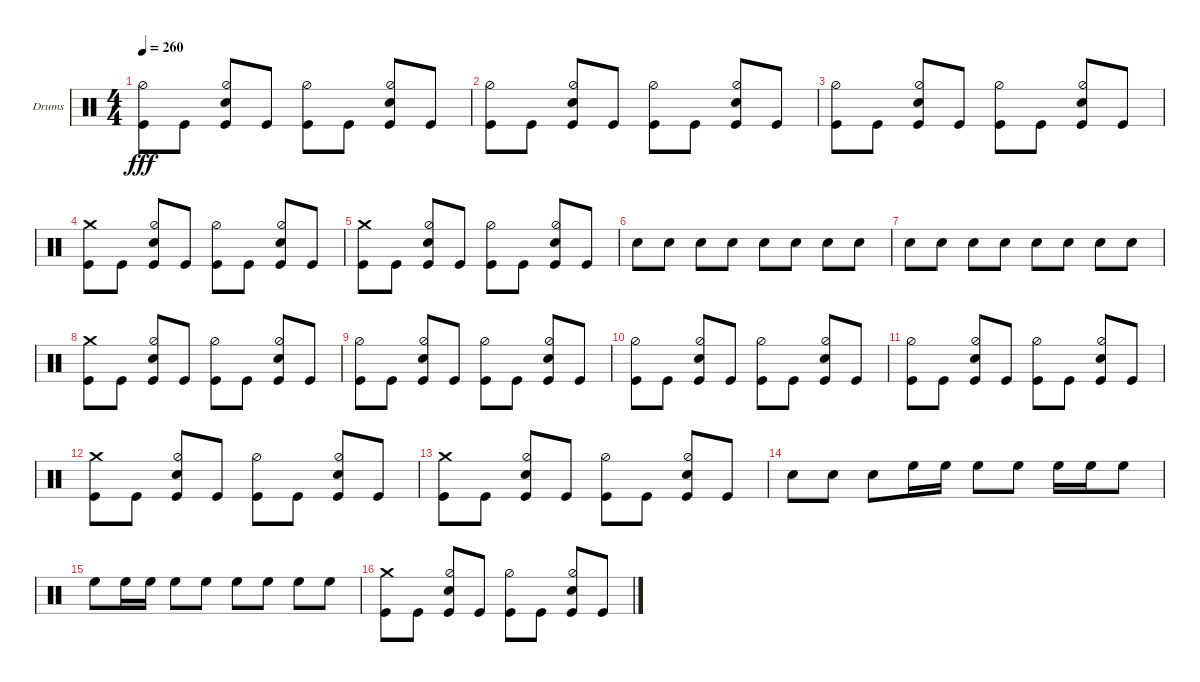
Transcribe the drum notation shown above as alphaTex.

\defaultSystemsLayout 4
\bracketExtendMode groupsimilarinstruments
\firstSystemTrackNameOrientation horizontal
\otherSystemsTrackNameOrientation horizontal
\track ("Stefan Schwarzmann" "Drums") {instrument percussion}
\staff {score}
\articulation defaults
\ts (4 4)
\tempo 260
\clef neutral
\ks c
("Kick (hit)" "Hi-Hat (half)").8{dy fff} "Kick (hit)".8 ("Kick (hit)" "Snare (hit) 2" "Hi-Hat (half)").8 "Kick (hit)".8 ("Kick (hit)" "Hi-Hat (half)").8 "Kick (hit)".8 ("Kick (hit)" "Snare (hit) 2" "Hi-Hat (half)").8 "Kick (hit)".8 |
("Kick (hit)" "Hi-Hat (half)").8 "Kick (hit)".8 ("Kick (hit)" "Snare (hit) 2" "Hi-Hat (half)").8 "Kick (hit)".8 ("Kick (hit)" "Hi-Hat (half)").8 "Kick (hit)".8 ("Kick (hit)" "Snare (hit) 2" "Hi-Hat (half)").8 "Kick (hit)".8 |
("Kick (hit)" "Hi-Hat (half)").8 "Kick (hit)".8 ("Kick (hit)" "Snare (hit) 2" "Hi-Hat (half)").8 "Kick (hit)".8 ("Kick (hit)" "Hi-Hat (half)").8 "Kick (hit)".8 ("Kick (hit)" "Snare (hit) 2" "Hi-Hat (half)").8 "Kick (hit)".8 |
("Kick (hit)" "Crash medium (hit)").8 "Kick (hit)".8 ("Kick (hit)" "Snare (hit) 2" "Hi-Hat (half)").8 "Kick (hit)".8 ("Kick (hit)" "Hi-Hat (half)").8 "Kick (hit)".8 ("Kick (hit)" "Snare (hit) 2" "Hi-Hat (half)").8 "Kick (hit)".8 |
("Kick (hit)" "Crash medium (hit)").8 "Kick (hit)".8 ("Kick (hit)" "Snare (hit) 2" "Hi-Hat (half)").8 "Kick (hit)".8 ("Kick (hit)" "Hi-Hat (half)").8 "Kick (hit)".8 ("Kick (hit)" "Snare (hit) 2" "Hi-Hat (half)").8 "Kick (hit)".8 |
"Snare (hit) 2".8 "Snare (hit) 2".8 "Snare (hit) 2".8 "Snare (hit) 2".8 "Snare (hit) 2".8 "Snare (hit) 2".8 "Snare (hit) 2".8 "Snare (hit) 2".8 |
"Snare (hit) 2".8 "Snare (hit) 2".8 "Snare (hit) 2".8 "Snare (hit) 2".8 "Snare (hit) 2".8 "Snare (hit) 2".8 "Snare (hit) 2".8 "Snare (hit) 2".8 |
("Kick (hit)" "Crash medium (hit)").8 "Kick (hit)".8 ("Kick (hit)" "Snare (hit) 2" "Hi-Hat (half)").8 "Kick (hit)".8 ("Kick (hit)" "Hi-Hat (half)").8 "Kick (hit)".8 ("Kick (hit)" "Snare (hit) 2" "Hi-Hat (half)").8 "Kick (hit)".8 |
("Kick (hit)" "Hi-Hat (half)").8 "Kick (hit)".8 ("Kick (hit)" "Snare (hit) 2" "Hi-Hat (half)").8 "Kick (hit)".8 ("Kick (hit)" "Hi-Hat (half)").8 "Kick (hit)".8 ("Kick (hit)" "Snare (hit) 2" "Hi-Hat (half)").8 "Kick (hit)".8 |
("Kick (hit)" "Hi-Hat (half)").8 "Kick (hit)".8 ("Kick (hit)" "Snare (hit) 2" "Hi-Hat (half)").8 "Kick (hit)".8 ("Kick (hit)" "Hi-Hat (half)").8 "Kick (hit)".8 ("Kick (hit)" "Snare (hit) 2" "Hi-Hat (half)").8 "Kick (hit)".8 |
("Kick (hit)" "Hi-Hat (half)").8 "Kick (hit)".8 ("Kick (hit)" "Snare (hit) 2" "Hi-Hat (half)").8 "Kick (hit)".8 ("Kick (hit)" "Hi-Hat (half)").8 "Kick (hit)".8 ("Kick (hit)" "Snare (hit) 2" "Hi-Hat (half)").8 "Kick (hit)".8 |
("Kick (hit)" "Crash medium (hit)").8 "Kick (hit)".8 ("Kick (hit)" "Snare (hit) 2" "Hi-Hat (half)").8 "Kick (hit)".8 ("Kick (hit)" "Hi-Hat (half)").8 "Kick (hit)".8 ("Kick (hit)" "Snare (hit) 2" "Hi-Hat (half)").8 "Kick (hit)".8 |
("Kick (hit)" "Crash medium (hit)").8 "Kick (hit)".8 ("Kick (hit)" "Snare (hit) 2" "Hi-Hat (half)").8 "Kick (hit)".8 ("Kick (hit)" "Hi-Hat (half)").8 "Kick (hit)".8 ("Kick (hit)" "Snare (hit) 2" "Hi-Hat (half)").8 "Kick (hit)".8 |
"Snare (hit) 2".8 "Snare (hit) 2".8 "Snare (hit) 2".8 "High Floor Tom (hit)".16 "High Floor Tom (hit)".16 "High Floor Tom (hit)".8 "High Floor Tom (hit)".8 "High Floor Tom (hit)".16 "High Floor Tom (hit)".16 "High Floor Tom (hit)".8 |
"High Floor Tom (hit)".8 "High Floor Tom (hit)".16 "High Floor Tom (hit)".16 "High Floor Tom (hit)".8 "High Floor Tom (hit)".8 "High Floor Tom (hit)".8 "High Floor Tom (hit)".8 "High Floor Tom (hit)".8 "High Floor Tom (hit)".8 |
("Kick (hit)" "Crash medium (hit)").8 "Kick (hit)".8 ("Kick (hit)" "Snare (hit) 2" "Hi-Hat (half)").8 "Kick (hit)".8 ("Kick (hit)" "Hi-Hat (half)").8 "Kick (hit)".8 ("Kick (hit)" "Snare (hit) 2" "Hi-Hat (half)").8 "Kick (hit)".8
